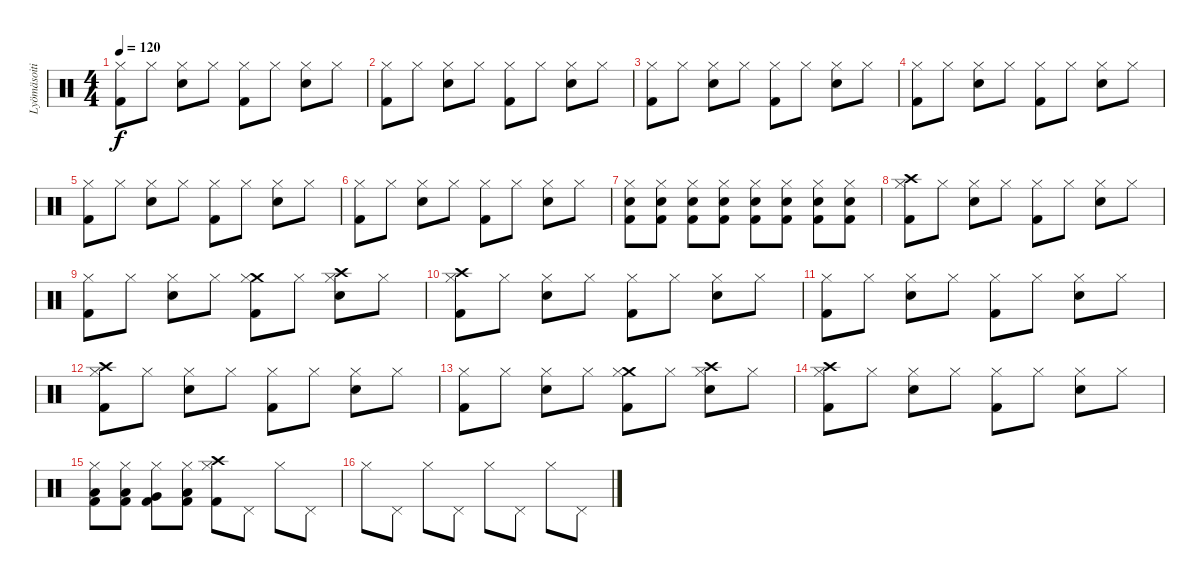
\track ("Lyömäsoitin" "Lyömäsoiti") {instrument percussion}
\staff {score}
\articulation defaults
\ts (4 4)
\tempo 120
\clef neutral
\ks c
("Hi-Hat (closed)" "Kick (hit) 2").8{dy f} "Hi-Hat (closed)".8 ("Hi-Hat (closed)" "Electric Snare (hit)").8 "Hi-Hat (closed)".8 ("Hi-Hat (closed)" "Kick (hit) 2").8 "Hi-Hat (closed)".8 ("Hi-Hat (closed)" "Electric Snare (hit)").8 "Hi-Hat (closed)".8 |
("Hi-Hat (closed)" "Kick (hit) 2").8 "Hi-Hat (closed)".8 ("Hi-Hat (closed)" "Electric Snare (hit)").8 "Hi-Hat (closed)".8 ("Hi-Hat (closed)" "Kick (hit) 2").8 "Hi-Hat (closed)".8 ("Hi-Hat (closed)" "Electric Snare (hit)").8 "Hi-Hat (closed)".8 |
("Hi-Hat (closed)" "Kick (hit) 2").8 "Hi-Hat (closed)".8 ("Hi-Hat (closed)" "Electric Snare (hit)").8 "Hi-Hat (closed)".8 ("Hi-Hat (closed)" "Kick (hit) 2").8 "Hi-Hat (closed)".8 ("Hi-Hat (closed)" "Electric Snare (hit)").8 "Hi-Hat (closed)".8 |
("Hi-Hat (closed)" "Kick (hit) 2").8 "Hi-Hat (closed)".8 ("Hi-Hat (closed)" "Electric Snare (hit)").8 "Hi-Hat (closed)".8 ("Hi-Hat (closed)" "Kick (hit) 2").8 "Hi-Hat (closed)".8 ("Hi-Hat (closed)" "Electric Snare (hit)").8 "Hi-Hat (closed)".8 |
("Hi-Hat (closed)" "Kick (hit) 2").8 "Hi-Hat (closed)".8 ("Hi-Hat (closed)" "Electric Snare (hit)").8 "Hi-Hat (closed)".8 ("Hi-Hat (closed)" "Kick (hit) 2").8 "Hi-Hat (closed)".8 ("Hi-Hat (closed)" "Electric Snare (hit)").8 "Hi-Hat (closed)".8 |
("Hi-Hat (closed)" "Kick (hit) 2").8 "Hi-Hat (closed)".8 ("Hi-Hat (closed)" "Electric Snare (hit)").8 "Hi-Hat (closed)".8 ("Hi-Hat (closed)" "Kick (hit) 2").8 "Hi-Hat (closed)".8 ("Hi-Hat (closed)" "Electric Snare (hit)").8 "Hi-Hat (closed)".8 |
("Hi-Hat (closed)" "Electric Snare (hit)" "Kick (hit) 2").8 ("Hi-Hat (closed)" "Electric Snare (hit)" "Kick (hit) 2").8 ("Hi-Hat (closed)" "Electric Snare (hit)" "Kick (hit) 2").8 ("Hi-Hat (closed)" "Electric Snare (hit)" "Kick (hit) 2").8 ("Hi-Hat (closed)" "Electric Snare (hit)" "Kick (hit) 2").8 ("Hi-Hat (closed)" "Electric Snare (hit)" "Kick (hit) 2").8 ("Hi-Hat (closed)" "Electric Snare (hit)" "Kick (hit) 2").8 ("Hi-Hat (closed)" "Electric Snare (hit)" "Kick (hit) 2").8 |
("Crash high (hit)" "Hi-Hat (closed)" "Kick (hit) 2").8 "Hi-Hat (closed)".8 ("Hi-Hat (closed)" "Electric Snare (hit)").8 "Hi-Hat (closed)".8 ("Hi-Hat (closed)" "Kick (hit) 2").8 "Hi-Hat (closed)".8 ("Hi-Hat (closed)" "Electric Snare (hit)").8 "Hi-Hat (closed)".8 |
("Hi-Hat (closed)" "Kick (hit) 2").8 "Hi-Hat (closed)".8 ("Hi-Hat (closed)" "Electric Snare (hit)").8 "Hi-Hat (closed)".8 ("Crash medium (hit)" "Hi-Hat (closed)" "Kick (hit) 2").8 "Hi-Hat (closed)".8 ("Crash high (hit)" "Hi-Hat (closed)" "Electric Snare (hit)").8 "Hi-Hat (closed)".8 |
("Crash high (hit)" "Hi-Hat (closed)" "Kick (hit) 2").8 "Hi-Hat (closed)".8 ("Hi-Hat (closed)" "Electric Snare (hit)").8 "Hi-Hat (closed)".8 ("Hi-Hat (closed)" "Kick (hit) 2").8 "Hi-Hat (closed)".8 ("Hi-Hat (closed)" "Electric Snare (hit)").8 "Hi-Hat (closed)".8 |
("Hi-Hat (closed)" "Kick (hit) 2").8 "Hi-Hat (closed)".8 ("Hi-Hat (closed)" "Electric Snare (hit)").8 "Hi-Hat (closed)".8 ("Hi-Hat (closed)" "Kick (hit) 2").8 "Hi-Hat (closed)".8 ("Hi-Hat (closed)" "Electric Snare (hit)").8 "Hi-Hat (closed)".8 |
("Crash high (hit)" "Hi-Hat (closed)" "Kick (hit) 2").8 "Hi-Hat (closed)".8 ("Hi-Hat (closed)" "Electric Snare (hit)").8 "Hi-Hat (closed)".8 ("Hi-Hat (closed)" "Kick (hit) 2").8 "Hi-Hat (closed)".8 ("Hi-Hat (closed)" "Electric Snare (hit)").8 "Hi-Hat (closed)".8 |
("Hi-Hat (closed)" "Kick (hit) 2").8 "Hi-Hat (closed)".8 ("Hi-Hat (closed)" "Electric Snare (hit)").8 "Hi-Hat (closed)".8 ("Crash medium (hit)" "Hi-Hat (closed)" "Kick (hit) 2").8 "Hi-Hat (closed)".8 ("Crash high (hit)" "Hi-Hat (closed)" "Electric Snare (hit)").8 "Hi-Hat (closed)".8 |
("Crash high (hit)" "Hi-Hat (closed)" "Kick (hit) 2").8 "Hi-Hat (closed)".8 ("Hi-Hat (closed)" "Electric Snare (hit)").8 "Hi-Hat (closed)".8 ("Hi-Hat (closed)" "Kick (hit) 2").8 "Hi-Hat (closed)".8 ("Hi-Hat (closed)" "Electric Snare (hit)").8 "Hi-Hat (closed)".8 |
("Hi-Hat (closed)" "Low Tom (hit)" "Kick (hit) 2").8 ("Hi-Hat (closed)" "Low Tom (hit)" "Kick (hit) 2").8 ("Hi-Hat (closed)" "Very Low Tom (hit)" "Kick (hit) 2").8 ("Hi-Hat (closed)" "Low Tom (hit)" "Kick (hit) 2").8 ("Crash high (hit)" "Hi-Hat (closed)" "Kick (hit) 2").8 "Pedal Hi-Hat (hit)".8 "Hi-Hat (closed)".8 "Pedal Hi-Hat (hit)".8 |
"Hi-Hat (closed)".8 "Pedal Hi-Hat (hit)".8 "Hi-Hat (closed)".8 "Pedal Hi-Hat (hit)".8 "Hi-Hat (closed)".8 "Pedal Hi-Hat (hit)".8 "Hi-Hat (closed)".8 "Pedal Hi-Hat (hit)".8
